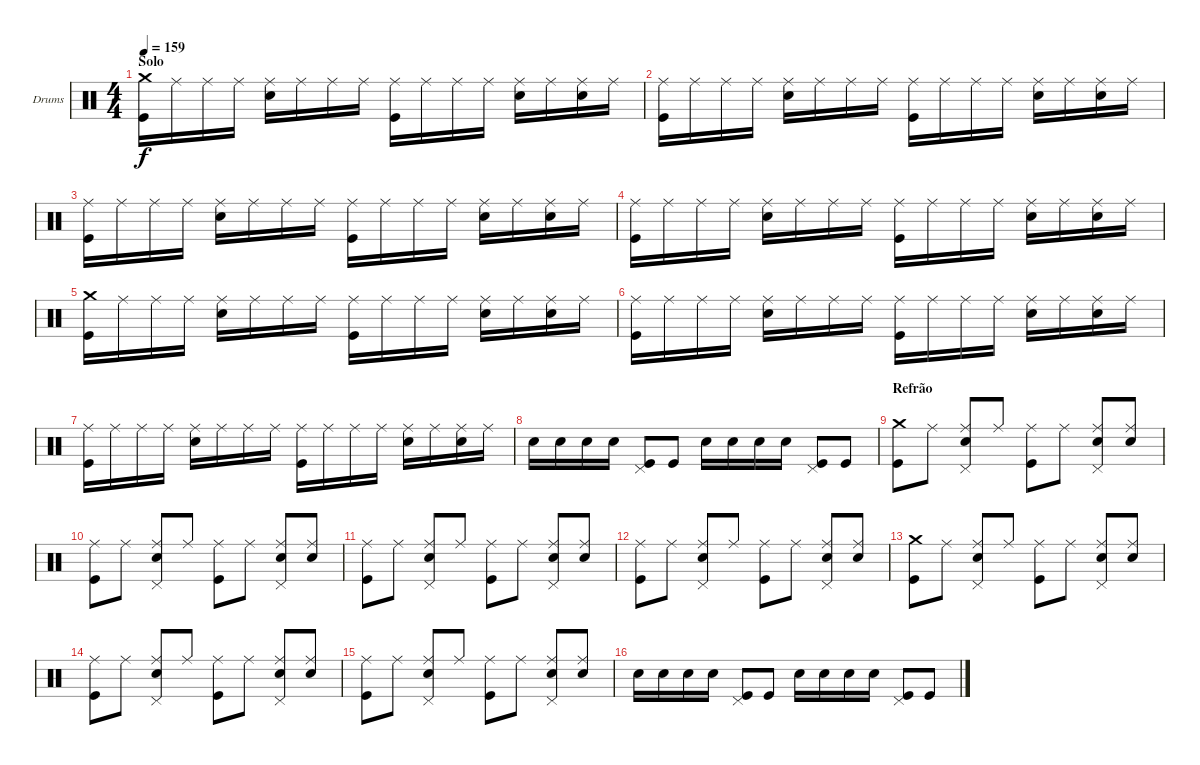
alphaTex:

\bracketExtendMode groupsimilarinstruments
\firstSystemTrackNameOrientation horizontal
\otherSystemsTrackNameOrientation horizontal
\track ("Drumkit" "Drums") {instrument percussion}
\staff {score}
\articulation defaults
\ts (4 4)
\section ("" "Solo")
\tempo 159
\clef neutral
\ks c
("Crash medium (hit)" "Kick (hit)").16{dy f} "Ride (middle)".16 "Ride (middle)".16 "Ride (middle)".16 ("Ride (middle)" "Snare (hit) 2").16 "Ride (middle)".16 "Ride (middle)".16 "Ride (middle)".16 ("Ride (middle)" "Kick (hit)").16 "Ride (middle)".16 "Ride (middle)".16 "Ride (middle)".16 ("Ride (middle)" "Snare (hit) 2").16 "Ride (middle)".16 ("Ride (middle)" "Snare (hit) 2").16 "Ride (middle)".16 |
("Kick (hit)" "Ride (middle)").16 "Ride (middle)".16 "Ride (middle)".16 "Ride (middle)".16 ("Ride (middle)" "Snare (hit) 2").16 "Ride (middle)".16 "Ride (middle)".16 "Ride (middle)".16 ("Ride (middle)" "Kick (hit)").16 "Ride (middle)".16 "Ride (middle)".16 "Ride (middle)".16 ("Ride (middle)" "Snare (hit) 2").16 "Ride (middle)".16 ("Ride (middle)" "Snare (hit) 2").16 "Ride (middle)".16 |
("Kick (hit)" "Ride (middle)").16 "Ride (middle)".16 "Ride (middle)".16 "Ride (middle)".16 ("Ride (middle)" "Snare (hit) 2").16 "Ride (middle)".16 "Ride (middle)".16 "Ride (middle)".16 ("Ride (middle)" "Kick (hit)").16 "Ride (middle)".16 "Ride (middle)".16 "Ride (middle)".16 ("Ride (middle)" "Snare (hit) 2").16 "Ride (middle)".16 ("Ride (middle)" "Snare (hit) 2").16 "Ride (middle)".16 |
("Kick (hit)" "Ride (middle)").16 "Ride (middle)".16 "Ride (middle)".16 "Ride (middle)".16 ("Ride (middle)" "Snare (hit) 2").16 "Ride (middle)".16 "Ride (middle)".16 "Ride (middle)".16 ("Ride (middle)" "Kick (hit)").16 "Ride (middle)".16 "Ride (middle)".16 "Ride (middle)".16 ("Ride (middle)" "Snare (hit) 2").16 "Ride (middle)".16 ("Ride (middle)" "Snare (hit) 2").16 "Ride (middle)".16 |
("Crash medium (hit)" "Kick (hit)").16 "Ride (middle)".16 "Ride (middle)".16 "Ride (middle)".16 ("Ride (middle)" "Snare (hit) 2").16 "Ride (middle)".16 "Ride (middle)".16 "Ride (middle)".16 ("Ride (middle)" "Kick (hit)").16 "Ride (middle)".16 "Ride (middle)".16 "Ride (middle)".16 ("Ride (middle)" "Snare (hit) 2").16 "Ride (middle)".16 ("Ride (middle)" "Snare (hit) 2").16 "Ride (middle)".16 |
("Kick (hit)" "Ride (middle)").16 "Ride (middle)".16 "Ride (middle)".16 "Ride (middle)".16 ("Ride (middle)" "Snare (hit) 2").16 "Ride (middle)".16 "Ride (middle)".16 "Ride (middle)".16 ("Ride (middle)" "Kick (hit)").16 "Ride (middle)".16 "Ride (middle)".16 "Ride (middle)".16 ("Ride (middle)" "Snare (hit) 2").16 "Ride (middle)".16 ("Ride (middle)" "Snare (hit) 2").16 "Ride (middle)".16 |
("Kick (hit)" "Ride (middle)").16 "Ride (middle)".16 "Ride (middle)".16 "Ride (middle)".16 ("Ride (middle)" "Snare (hit) 2").16 "Ride (middle)".16 "Ride (middle)".16 "Ride (middle)".16 ("Ride (middle)" "Kick (hit)").16 "Ride (middle)".16 "Ride (middle)".16 "Ride (middle)".16 ("Ride (middle)" "Snare (hit) 2").16 "Ride (middle)".16 ("Ride (middle)" "Snare (hit) 2").16 "Ride (middle)".16 |
"Snare (hit) 2".16 "Snare (hit) 2".16 "Snare (hit) 2".16 "Snare (hit) 2".16 ("Kick (hit)" "Pedal Hi-Hat (hit)").8 "Kick (hit)".8 "Snare (hit) 2".16 "Snare (hit) 2".16 "Snare (hit) 2".16 "Snare (hit) 2".16 ("Kick (hit)" "Pedal Hi-Hat (hit)").8 "Kick (hit)".8 |
\section ("" "Refrão")
("Kick (hit)" "Crash medium (hit)").8 "Ride (middle)".8 ("Ride (middle)" "Snare (hit) 2" "Pedal Hi-Hat (hit)").8 "Ride (middle)".8 ("Ride (middle)" "Kick (hit)").8 "Ride (middle)".8 ("Ride (middle)" "Snare (hit) 2" "Pedal Hi-Hat (hit)").8 ("Ride (middle)" "Snare (hit) 2").8 |
("Ride (middle)" "Kick (hit)").8 "Ride (middle)".8 ("Ride (middle)" "Snare (hit) 2" "Pedal Hi-Hat (hit)").8 "Ride (middle)".8 ("Ride (middle)" "Kick (hit)").8 "Ride (middle)".8 ("Ride (middle)" "Snare (hit) 2" "Pedal Hi-Hat (hit)").8 ("Ride (middle)" "Snare (hit) 2").8 |
("Ride (middle)" "Kick (hit)").8 "Ride (middle)".8 ("Ride (middle)" "Snare (hit) 2" "Pedal Hi-Hat (hit)").8 "Ride (middle)".8 ("Ride (middle)" "Kick (hit)").8 "Ride (middle)".8 ("Ride (middle)" "Snare (hit) 2" "Pedal Hi-Hat (hit)").8 ("Ride (middle)" "Snare (hit) 2").8 |
("Ride (middle)" "Kick (hit)").8 "Ride (middle)".8 ("Ride (middle)" "Snare (hit) 2" "Pedal Hi-Hat (hit)").8 "Ride (middle)".8 ("Ride (middle)" "Kick (hit)").8 "Ride (middle)".8 ("Ride (middle)" "Snare (hit) 2" "Pedal Hi-Hat (hit)").8 ("Ride (middle)" "Snare (hit) 2").8 |
("Kick (hit)" "Crash medium (hit)").8 "Ride (middle)".8 ("Ride (middle)" "Snare (hit) 2" "Pedal Hi-Hat (hit)").8 "Ride (middle)".8 ("Ride (middle)" "Kick (hit)").8 "Ride (middle)".8 ("Ride (middle)" "Snare (hit) 2" "Pedal Hi-Hat (hit)").8 ("Ride (middle)" "Snare (hit) 2").8 |
("Ride (middle)" "Kick (hit)").8 "Ride (middle)".8 ("Ride (middle)" "Snare (hit) 2" "Pedal Hi-Hat (hit)").8 "Ride (middle)".8 ("Ride (middle)" "Kick (hit)").8 "Ride (middle)".8 ("Ride (middle)" "Snare (hit) 2" "Pedal Hi-Hat (hit)").8 ("Ride (middle)" "Snare (hit) 2").8 |
("Ride (middle)" "Kick (hit)").8 "Ride (middle)".8 ("Ride (middle)" "Snare (hit) 2" "Pedal Hi-Hat (hit)").8 "Ride (middle)".8 ("Ride (middle)" "Kick (hit)").8 "Ride (middle)".8 ("Ride (middle)" "Snare (hit) 2" "Pedal Hi-Hat (hit)").8 ("Ride (middle)" "Snare (hit) 2").8 |
"Snare (hit) 2".16 "Snare (hit) 2".16 "Snare (hit) 2".16 "Snare (hit) 2".16 ("Kick (hit)" "Pedal Hi-Hat (hit)").8 "Kick (hit)".8 "Snare (hit) 2".16 "Snare (hit) 2".16 "Snare (hit) 2".16 "Snare (hit) 2".16 ("Kick (hit)" "Pedal Hi-Hat (hit)").8 "Kick (hit)".8
